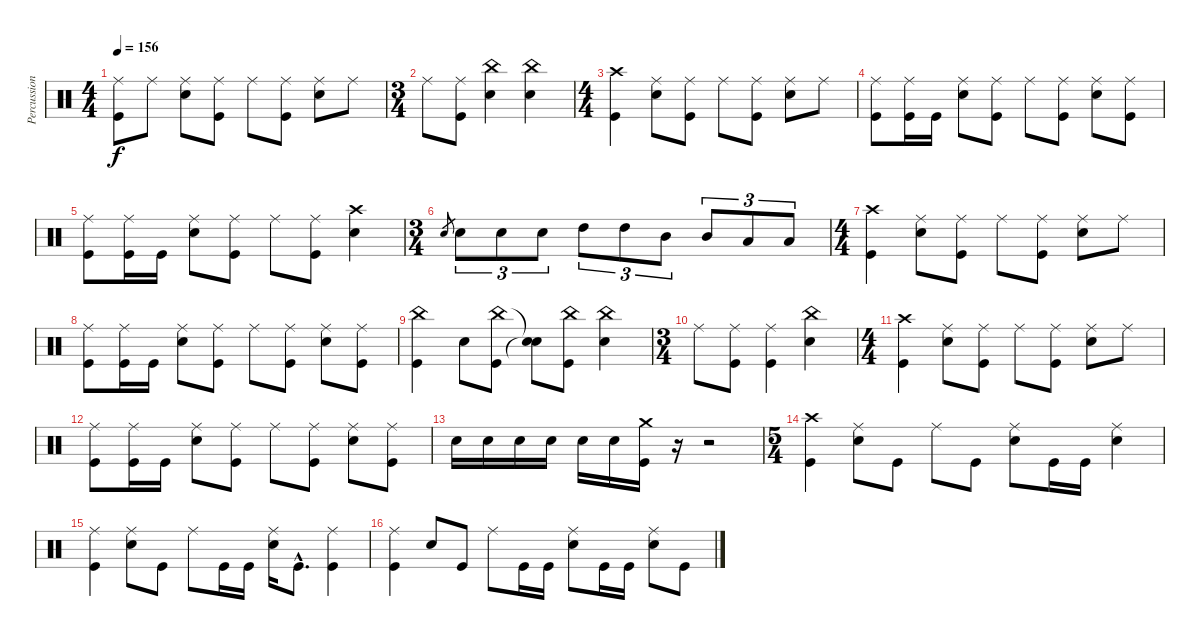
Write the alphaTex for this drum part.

\track ("Percussion" "Percussion") {instrument percussion}
\staff {score}
\articulation defaults
\ts (4 4)
\tempo 156
\clef neutral
\ks c
("Ride (middle)" "Kick (hit)").8{dy f} "Ride (middle)".8 ("Ride (middle)" "Electric Snare (hit)").8 ("Ride (middle)" "Kick (hit)").8 "Ride (middle)".8 ("Ride (middle)" "Kick (hit)").8 ("Ride (middle)" "Electric Snare (hit)").8 "Ride (middle)".8 |
\ts (3 4)
"Ride (middle)".8 ("Ride (middle)" "Kick (hit)").8 ("China (hit)" "Electric Snare (hit)").4 ("China (hit)" "Electric Snare (hit)").4 |
\ts (4 4)
("Crash high (hit)" "Kick (hit)").4 ("Ride (middle)" "Electric Snare (hit)").8 ("Ride (middle)" "Kick (hit)").8 "Ride (middle)".8 ("Ride (middle)" "Kick (hit)").8 ("Ride (middle)" "Electric Snare (hit)").8 "Ride (middle)".8 |
("Ride (middle)" "Kick (hit)").8 ("Ride (middle)" "Kick (hit)").16 "Kick (hit)".16 ("Ride (middle)" "Electric Snare (hit)").8 ("Ride (middle)" "Kick (hit)").8 "Ride (middle)".8 ("Ride (middle)" "Kick (hit)").8 ("Ride (middle)" "Electric Snare (hit)").8 ("Ride (middle)" "Kick (hit)").8 |
("Ride (middle)" "Kick (hit)").8 ("Ride (middle)" "Kick (hit)").16 "Kick (hit)".16 ("Ride (middle)" "Electric Snare (hit)").8 ("Ride (middle)" "Kick (hit)").8 "Ride (middle)".8 ("Ride (middle)" "Kick (hit)").8 ("Crash high (hit)" "Electric Snare (hit)").4 |
\ts (3 4)
"Snare (hit) 2".8{gr} "Electric Snare (hit)".8{tu (3 2)} "Electric Snare (hit)".8{tu (3 2)} "Electric Snare (hit)".8{tu (3 2)} "High Tom (hit)".8{tu (3 2)} "High Tom (hit)".8{tu (3 2)} "Mid Tom (hit)".8{tu (3 2)} "Mid Tom (hit)".8{tu (3 2)} "Low Tom (hit)".8{tu (3 2)} "Low Tom (hit)".8{tu (3 2)} |
\ts (4 4)
("Crash high (hit)" "Kick (hit)").4 ("Ride (middle)" "Electric Snare (hit)").8 ("Ride (middle)" "Kick (hit)").8 "Ride (middle)".8 ("Ride (middle)" "Kick (hit)").8 ("Ride (middle)" "Electric Snare (hit)").8 "Ride (middle)".8 |
("Ride (middle)" "Kick (hit)").8 ("Ride (middle)" "Kick (hit)").16 "Kick (hit)".16 ("Ride (middle)" "Electric Snare (hit)").8 ("Ride (middle)" "Kick (hit)").8 "Ride (middle)".8 ("Ride (middle)" "Kick (hit)").8 ("Ride (middle)" "Electric Snare (hit)").8 ("Ride (middle)" "Kick (hit)").8 |
("China (hit)" "Kick (hit)").4 "Electric Snare (hit)".8 ("China (hit)" "Kick (hit)").8 ("Snare (hit)"{t} "Snare (hit)"{t}).8 ("China (hit)" "Kick (hit)").8 ("China (hit)" "Electric Snare (hit)").4 |
\ts (3 4)
"Ride (middle)".8 ("Ride (middle)" "Kick (hit)").8 ("Ride (middle)" "Kick (hit)").4 ("China (hit)" "Electric Snare (hit)").4 |
\ts (4 4)
("Crash high (hit)" "Kick (hit)").4 ("Ride (middle)" "Electric Snare (hit)").8 ("Ride (middle)" "Kick (hit)").8 "Ride (middle)".8 ("Ride (middle)" "Kick (hit)").8 ("Ride (middle)" "Electric Snare (hit)").8 "Ride (middle)".8 |
("Ride (middle)" "Kick (hit)").8 ("Ride (middle)" "Kick (hit)").16 "Kick (hit)".16 ("Ride (middle)" "Electric Snare (hit)").8 ("Ride (middle)" "Kick (hit)").8 "Ride (middle)".8 ("Ride (middle)" "Kick (hit)").8 ("Ride (middle)" "Electric Snare (hit)").8 ("Ride (middle)" "Kick (hit)").8 |
"Electric Snare (hit)".16 "Electric Snare (hit)".16 "Electric Snare (hit)".16 "Electric Snare (hit)".16 "Electric Snare (hit)".16 "Electric Snare (hit)".16 ("Crash medium (hit)" "Kick (hit)").16 r.16 r.2 |
\ts (5 4)
("Crash high (hit)" "Kick (hit)").4 ("Ride (middle)" "Electric Snare (hit)").8 "Kick (hit)".8 "Ride (middle)".8 "Kick (hit)".8 ("Ride (middle)" "Electric Snare (hit)").8 "Kick (hit)".16 "Kick (hit)".16 ("Ride (middle)" "Electric Snare (hit)").4 |
("Ride (middle)" "Kick (hit)").4 ("Ride (middle)" "Electric Snare (hit)").8 "Kick (hit)".8 "Ride (middle)".8 "Kick (hit)".16 "Kick (hit)".16 ("Ride (middle)" "Electric Snare (hit)").16 "Kick (hit)"{hac}.8{d} ("Ride (middle)" "Kick (hit)").4 |
("Ride (middle)" "Kick (hit)").4 "Electric Snare (hit)".8 "Kick (hit)".8 "Ride (middle)".8 "Kick (hit)".16 "Kick (hit)".16 ("Ride (middle)" "Electric Snare (hit)").8 "Kick (hit)".16 "Kick (hit)".16 ("Ride (middle)" "Electric Snare (hit)").8 "Kick (hit)".8
